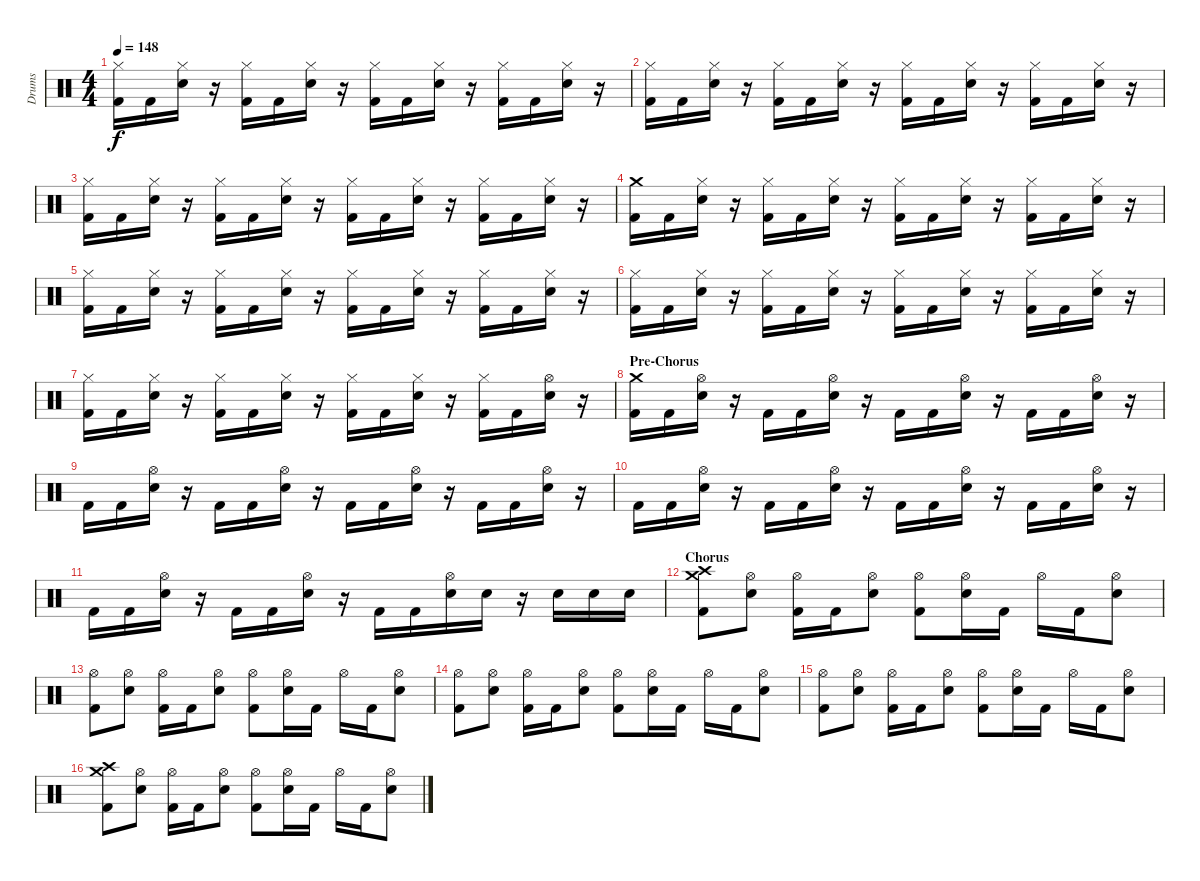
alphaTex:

\track ("Drums" "Drums") {instrument percussion}
\staff {score}
\articulation defaults
\ts (4 4)
\tempo 148
\clef neutral
\ks c
("Hi-Hat (closed)" "Kick (hit) 2").16{dy f} "Kick (hit) 2".16 ("Hi-Hat (closed)" "Electric Snare (hit)").16 r.16 ("Hi-Hat (closed)" "Kick (hit) 2").16 "Kick (hit) 2".16 ("Hi-Hat (closed)" "Electric Snare (hit)").16 r.16 ("Hi-Hat (closed)" "Kick (hit) 2").16 "Kick (hit) 2".16 ("Hi-Hat (closed)" "Electric Snare (hit)").16 r.16 ("Hi-Hat (closed)" "Kick (hit) 2").16 "Kick (hit) 2".16 ("Hi-Hat (closed)" "Electric Snare (hit)").16 r.16 |
("Hi-Hat (closed)" "Kick (hit) 2").16 "Kick (hit) 2".16 ("Hi-Hat (closed)" "Electric Snare (hit)").16 r.16 ("Hi-Hat (closed)" "Kick (hit) 2").16 "Kick (hit) 2".16 ("Hi-Hat (closed)" "Electric Snare (hit)").16 r.16 ("Hi-Hat (closed)" "Kick (hit) 2").16 "Kick (hit) 2".16 ("Hi-Hat (closed)" "Electric Snare (hit)").16 r.16 ("Hi-Hat (closed)" "Kick (hit) 2").16 "Kick (hit) 2".16 ("Hi-Hat (closed)" "Electric Snare (hit)").16 r.16 |
("Hi-Hat (closed)" "Kick (hit) 2").16 "Kick (hit) 2".16 ("Hi-Hat (closed)" "Electric Snare (hit)").16 r.16 ("Hi-Hat (closed)" "Kick (hit) 2").16 "Kick (hit) 2".16 ("Hi-Hat (closed)" "Electric Snare (hit)").16 r.16 ("Hi-Hat (closed)" "Kick (hit) 2").16 "Kick (hit) 2".16 ("Hi-Hat (closed)" "Electric Snare (hit)").16 r.16 ("Hi-Hat (closed)" "Kick (hit) 2").16 "Kick (hit) 2".16 ("Hi-Hat (closed)" "Electric Snare (hit)").16 r.16 |
("Crash medium (hit)" "Kick (hit) 2").16 "Kick (hit) 2".16 ("Hi-Hat (closed)" "Electric Snare (hit)").16 r.16 ("Hi-Hat (closed)" "Kick (hit) 2").16 "Kick (hit) 2".16 ("Hi-Hat (closed)" "Electric Snare (hit)").16 r.16 ("Hi-Hat (closed)" "Kick (hit) 2").16 "Kick (hit) 2".16 ("Hi-Hat (closed)" "Electric Snare (hit)").16 r.16 ("Hi-Hat (closed)" "Kick (hit) 2").16 "Kick (hit) 2".16 ("Hi-Hat (closed)" "Electric Snare (hit)").16 r.16 |
("Hi-Hat (closed)" "Kick (hit) 2").16 "Kick (hit) 2".16 ("Hi-Hat (closed)" "Electric Snare (hit)").16 r.16 ("Hi-Hat (closed)" "Kick (hit) 2").16 "Kick (hit) 2".16 ("Hi-Hat (closed)" "Electric Snare (hit)").16 r.16 ("Hi-Hat (closed)" "Kick (hit) 2").16 "Kick (hit) 2".16 ("Hi-Hat (closed)" "Electric Snare (hit)").16 r.16 ("Hi-Hat (closed)" "Kick (hit) 2").16 "Kick (hit) 2".16 ("Hi-Hat (closed)" "Electric Snare (hit)").16 r.16 |
("Hi-Hat (closed)" "Kick (hit) 2").16 "Kick (hit) 2".16 ("Hi-Hat (closed)" "Electric Snare (hit)").16 r.16 ("Hi-Hat (closed)" "Kick (hit) 2").16 "Kick (hit) 2".16 ("Hi-Hat (closed)" "Electric Snare (hit)").16 r.16 ("Hi-Hat (closed)" "Kick (hit) 2").16 "Kick (hit) 2".16 ("Hi-Hat (closed)" "Electric Snare (hit)").16 r.16 ("Hi-Hat (closed)" "Kick (hit) 2").16 "Kick (hit) 2".16 ("Hi-Hat (closed)" "Electric Snare (hit)").16 r.16 |
("Hi-Hat (closed)" "Kick (hit) 2").16 "Kick (hit) 2".16 ("Hi-Hat (closed)" "Electric Snare (hit)").16 r.16 ("Hi-Hat (closed)" "Kick (hit) 2").16 "Kick (hit) 2".16 ("Hi-Hat (closed)" "Electric Snare (hit)").16 r.16 ("Hi-Hat (closed)" "Kick (hit) 2").16 "Kick (hit) 2".16 ("Hi-Hat (closed)" "Electric Snare (hit)").16 r.16 ("Hi-Hat (closed)" "Kick (hit) 2").16 "Kick (hit) 2".16 ("Hi-Hat (open)" "Electric Snare (hit)").16 r.16 |
\section ("" "Pre-Chorus")
("Crash medium (hit)" "Kick (hit) 2").16 "Kick (hit) 2".16 ("Hi-Hat (open)" "Electric Snare (hit)").16 r.16 "Kick (hit) 2".16 "Kick (hit) 2".16 ("Hi-Hat (open)" "Electric Snare (hit)").16 r.16 "Kick (hit) 2".16 "Kick (hit) 2".16 ("Hi-Hat (open)" "Electric Snare (hit)").16 r.16 "Kick (hit) 2".16 "Kick (hit) 2".16 ("Hi-Hat (open)" "Electric Snare (hit)").16 r.16 |
"Kick (hit) 2".16 "Kick (hit) 2".16 ("Hi-Hat (open)" "Electric Snare (hit)").16 r.16 "Kick (hit) 2".16 "Kick (hit) 2".16 ("Hi-Hat (open)" "Electric Snare (hit)").16 r.16 "Kick (hit) 2".16 "Kick (hit) 2".16 ("Hi-Hat (open)" "Electric Snare (hit)").16 r.16 "Kick (hit) 2".16 "Kick (hit) 2".16 ("Hi-Hat (open)" "Electric Snare (hit)").16 r.16 |
"Kick (hit) 2".16 "Kick (hit) 2".16 ("Hi-Hat (open)" "Electric Snare (hit)").16 r.16 "Kick (hit) 2".16 "Kick (hit) 2".16 ("Hi-Hat (open)" "Electric Snare (hit)").16 r.16 "Kick (hit) 2".16 "Kick (hit) 2".16 ("Hi-Hat (open)" "Electric Snare (hit)").16 r.16 "Kick (hit) 2".16 "Kick (hit) 2".16 ("Hi-Hat (open)" "Electric Snare (hit)").16 r.16 |
"Kick (hit) 2".16 "Kick (hit) 2".16 ("Hi-Hat (open)" "Electric Snare (hit)").16 r.16 "Kick (hit) 2".16 "Kick (hit) 2".16 ("Hi-Hat (open)" "Electric Snare (hit)").16 r.16 "Kick (hit) 2".16 "Kick (hit) 2".16 ("Hi-Hat (open)" "Electric Snare (hit)").16 "Electric Snare (hit)".16 r.16 "Electric Snare (hit)".16 "Electric Snare (hit)".16 "Electric Snare (hit)".16 |
\section ("" "Chorus")
("Crash high (hit)" "Crash medium (hit)" "Kick (hit) 2").8 ("Hi-Hat (open)" "Electric Snare (hit)").8 ("Hi-Hat (open)" "Kick (hit) 2").16 "Kick (hit) 2".16 ("Hi-Hat (open)" "Electric Snare (hit)").8 ("Hi-Hat (open)" "Kick (hit) 2").8 ("Hi-Hat (open)" "Electric Snare (hit)").16 "Kick (hit) 2".16 "Hi-Hat (open)".16 "Kick (hit) 2".16 ("Hi-Hat (open)" "Electric Snare (hit)").8 |
("Hi-Hat (open)" "Kick (hit) 2").8 ("Hi-Hat (open)" "Electric Snare (hit)").8 ("Hi-Hat (open)" "Kick (hit) 2").16 "Kick (hit) 2".16 ("Hi-Hat (open)" "Electric Snare (hit)").8 ("Hi-Hat (open)" "Kick (hit) 2").8 ("Hi-Hat (open)" "Electric Snare (hit)").16 "Kick (hit) 2".16 "Hi-Hat (open)".16 "Kick (hit) 2".16 ("Hi-Hat (open)" "Electric Snare (hit)").8 |
("Hi-Hat (open)" "Kick (hit) 2").8 ("Hi-Hat (open)" "Electric Snare (hit)").8 ("Hi-Hat (open)" "Kick (hit) 2").16 "Kick (hit) 2".16 ("Hi-Hat (open)" "Electric Snare (hit)").8 ("Hi-Hat (open)" "Kick (hit) 2").8 ("Hi-Hat (open)" "Electric Snare (hit)").16 "Kick (hit) 2".16 "Hi-Hat (open)".16 "Kick (hit) 2".16 ("Hi-Hat (open)" "Electric Snare (hit)").8 |
("Hi-Hat (open)" "Kick (hit) 2").8 ("Hi-Hat (open)" "Electric Snare (hit)").8 ("Hi-Hat (open)" "Kick (hit) 2").16 "Kick (hit) 2".16 ("Hi-Hat (open)" "Electric Snare (hit)").8 ("Hi-Hat (open)" "Kick (hit) 2").8 ("Hi-Hat (open)" "Electric Snare (hit)").16 "Kick (hit) 2".16 "Hi-Hat (open)".16 "Kick (hit) 2".16 ("Hi-Hat (open)" "Electric Snare (hit)").8 |
("Crash high (hit)" "Crash medium (hit)" "Kick (hit) 2").8 ("Hi-Hat (open)" "Electric Snare (hit)").8 ("Hi-Hat (open)" "Kick (hit) 2").16 "Kick (hit) 2".16 ("Hi-Hat (open)" "Electric Snare (hit)").8 ("Hi-Hat (open)" "Kick (hit) 2").8 ("Hi-Hat (open)" "Electric Snare (hit)").16 "Kick (hit) 2".16 "Hi-Hat (open)".16 "Kick (hit) 2".16 ("Hi-Hat (open)" "Electric Snare (hit)").8
